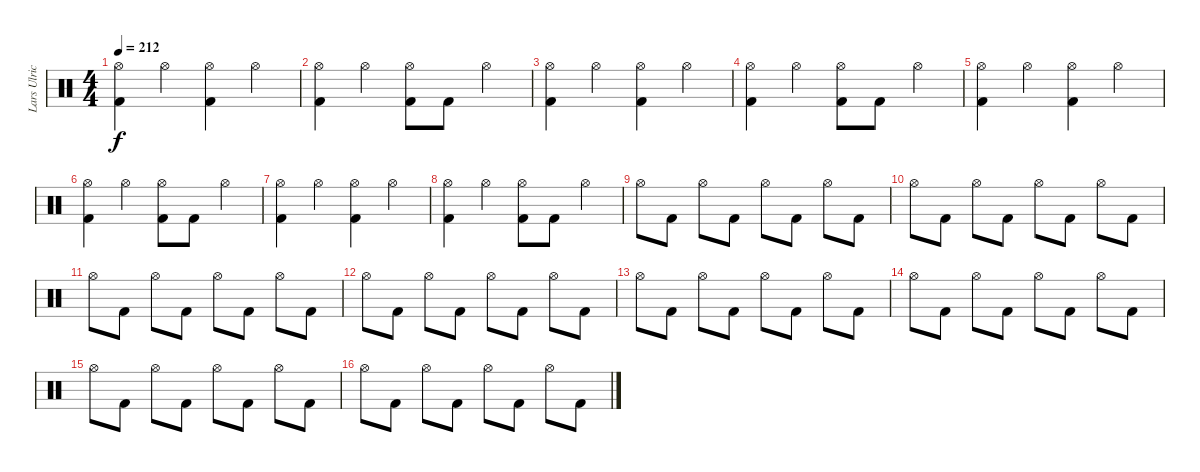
\track ("Lars Ulrich" "Lars Ulric") {instrument percussion}
\staff {score}
\articulation defaults
\ts (4 4)
\tempo 212
\clef neutral
\ks c
("Hi-Hat (open)" "Kick (hit) 2").4{dy f} "Hi-Hat (open)".4 ("Hi-Hat (open)" "Kick (hit) 2").4 "Hi-Hat (open)".4 |
("Hi-Hat (open)" "Kick (hit) 2").4 "Hi-Hat (open)".4 ("Hi-Hat (open)" "Kick (hit) 2").8 "Kick (hit) 2".8 "Hi-Hat (open)".4 |
("Hi-Hat (open)" "Kick (hit) 2").4 "Hi-Hat (open)".4 ("Hi-Hat (open)" "Kick (hit) 2").4 "Hi-Hat (open)".4 |
("Hi-Hat (open)" "Kick (hit) 2").4 "Hi-Hat (open)".4 ("Hi-Hat (open)" "Kick (hit) 2").8 "Kick (hit) 2".8 "Hi-Hat (open)".4 |
("Hi-Hat (open)" "Kick (hit) 2").4 "Hi-Hat (open)".4 ("Hi-Hat (open)" "Kick (hit) 2").4 "Hi-Hat (open)".4 |
("Hi-Hat (open)" "Kick (hit) 2").4 "Hi-Hat (open)".4 ("Hi-Hat (open)" "Kick (hit) 2").8 "Kick (hit) 2".8 "Hi-Hat (open)".4 |
("Hi-Hat (open)" "Kick (hit) 2").4 "Hi-Hat (open)".4 ("Hi-Hat (open)" "Kick (hit) 2").4 "Hi-Hat (open)".4 |
("Hi-Hat (open)" "Kick (hit) 2").4 "Hi-Hat (open)".4 ("Hi-Hat (open)" "Kick (hit) 2").8 "Kick (hit) 2".8 "Hi-Hat (open)".4 |
"Hi-Hat (open)".8 "Kick (hit) 2".8 "Hi-Hat (open)".8 "Kick (hit) 2".8 "Hi-Hat (open)".8 "Kick (hit) 2".8 "Hi-Hat (open)".8 "Kick (hit) 2".8 |
"Hi-Hat (open)".8 "Kick (hit) 2".8 "Hi-Hat (open)".8 "Kick (hit) 2".8 "Hi-Hat (open)".8 "Kick (hit) 2".8 "Hi-Hat (open)".8 "Kick (hit) 2".8 |
"Hi-Hat (open)".8 "Kick (hit) 2".8 "Hi-Hat (open)".8 "Kick (hit) 2".8 "Hi-Hat (open)".8 "Kick (hit) 2".8 "Hi-Hat (open)".8 "Kick (hit) 2".8 |
"Hi-Hat (open)".8 "Kick (hit) 2".8 "Hi-Hat (open)".8 "Kick (hit) 2".8 "Hi-Hat (open)".8 "Kick (hit) 2".8 "Hi-Hat (open)".8 "Kick (hit) 2".8 |
"Hi-Hat (open)".8 "Kick (hit) 2".8 "Hi-Hat (open)".8 "Kick (hit) 2".8 "Hi-Hat (open)".8 "Kick (hit) 2".8 "Hi-Hat (open)".8 "Kick (hit) 2".8 |
"Hi-Hat (open)".8 "Kick (hit) 2".8 "Hi-Hat (open)".8 "Kick (hit) 2".8 "Hi-Hat (open)".8 "Kick (hit) 2".8 "Hi-Hat (open)".8 "Kick (hit) 2".8 |
"Hi-Hat (open)".8 "Kick (hit) 2".8 "Hi-Hat (open)".8 "Kick (hit) 2".8 "Hi-Hat (open)".8 "Kick (hit) 2".8 "Hi-Hat (open)".8 "Kick (hit) 2".8 |
"Hi-Hat (open)".8 "Kick (hit) 2".8 "Hi-Hat (open)".8 "Kick (hit) 2".8 "Hi-Hat (open)".8 "Kick (hit) 2".8 "Hi-Hat (open)".8 "Kick (hit) 2".8
